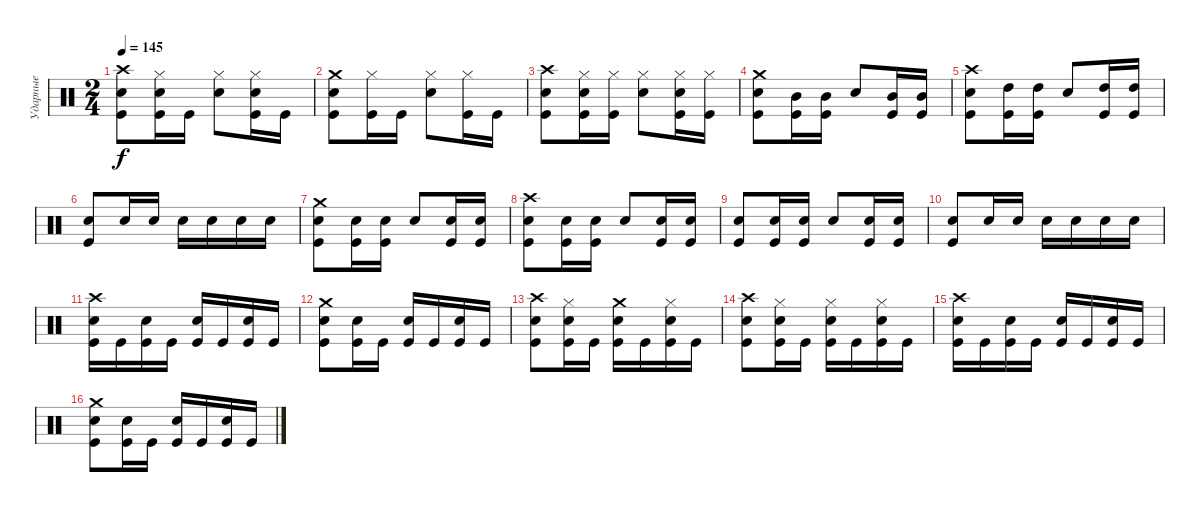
\track ("Ударные" "Ударные") {instrument percussion}
\staff {score}
\articulation defaults
\ts (2 4)
\tempo 145
\clef neutral
\ks c
("Crash high (hit)" "Electric Snare (hit)" "Kick (hit)").8{dy f} ("Hi-Hat (closed)" "Electric Snare (hit)" "Kick (hit)").16 "Kick (hit)".16 ("Hi-Hat (closed)" "Electric Snare (hit)").8 ("Hi-Hat (closed)" "Electric Snare (hit)" "Kick (hit)").16 "Kick (hit)".16 |
("Crash medium (hit)" "Electric Snare (hit)" "Kick (hit)").8 ("Hi-Hat (closed)" "Kick (hit)").16 "Kick (hit)".16 ("Hi-Hat (closed)" "Electric Snare (hit)").8 ("Hi-Hat (closed)" "Kick (hit)").16 "Kick (hit)".16 |
("Crash high (hit)" "Electric Snare (hit)" "Kick (hit)").8 ("Hi-Hat (closed)" "Electric Snare (hit)" "Kick (hit)").16 ("Hi-Hat (closed)" "Kick (hit)").16 ("Hi-Hat (closed)" "Electric Snare (hit)").8 ("Hi-Hat (closed)" "Electric Snare (hit)" "Kick (hit)").16 ("Hi-Hat (closed)" "Kick (hit)").16 |
("Crash medium (hit)" "Electric Snare (hit)" "Kick (hit)").8 ("Mid Tom (hit)" "Kick (hit)").16 ("Mid Tom (hit)" "Kick (hit)").16 "Electric Snare (hit)".8 ("Mid Tom (hit)" "Kick (hit)").16 ("Mid Tom (hit)" "Kick (hit)").16 |
("Crash high (hit)" "Electric Snare (hit)" "Kick (hit)").8 ("High Tom (hit)" "Kick (hit)").16 ("High Tom (hit)" "Kick (hit)").16 "Electric Snare (hit)".8 ("High Tom (hit)" "Kick (hit)").16 ("High Tom (hit)" "Kick (hit)").16 |
("Electric Snare (hit)" "Kick (hit)").8 "Electric Snare (hit)".16 "Electric Snare (hit)".16 "Electric Snare (hit)".16 "Electric Snare (hit)".16 "Electric Snare (hit)".16 "Electric Snare (hit)".16 |
("Crash medium (hit)" "Electric Snare (hit)" "Kick (hit)").8 ("Electric Snare (hit)" "Kick (hit)").16 ("Electric Snare (hit)" "Kick (hit)").16 "Electric Snare (hit)".8 ("Electric Snare (hit)" "Kick (hit)").16 ("Electric Snare (hit)" "Kick (hit)").16 |
("Crash high (hit)" "Electric Snare (hit)" "Kick (hit)").8 ("Electric Snare (hit)" "Kick (hit)").16 ("Electric Snare (hit)" "Kick (hit)").16 "Electric Snare (hit)".8 ("Electric Snare (hit)" "Kick (hit)").16 ("Electric Snare (hit)" "Kick (hit)").16 |
("Electric Snare (hit)" "Kick (hit)").8 ("Electric Snare (hit)" "Kick (hit)").16 ("Electric Snare (hit)" "Kick (hit)").16 "Electric Snare (hit)".8 ("Electric Snare (hit)" "Kick (hit)").16 ("Electric Snare (hit)" "Kick (hit)").16 |
("Electric Snare (hit)" "Kick (hit)").8 "Electric Snare (hit)".16 "Electric Snare (hit)".16 "Electric Snare (hit)".16 "Electric Snare (hit)".16 "Electric Snare (hit)".16 "Electric Snare (hit)".16 |
("Crash high (hit)" "Electric Snare (hit)" "Kick (hit)").16 "Kick (hit)".16 ("Electric Snare (hit)" "Kick (hit)").16 "Kick (hit)".16 ("Electric Snare (hit)" "Kick (hit)").16 "Kick (hit)".16 ("Electric Snare (hit)" "Kick (hit)").16 "Kick (hit)".16 |
("Crash medium (hit)" "Electric Snare (hit)" "Kick (hit)").8 ("Electric Snare (hit)" "Kick (hit)").16 "Kick (hit)".16 ("Electric Snare (hit)" "Kick (hit)").16 "Kick (hit)".16 ("Electric Snare (hit)" "Kick (hit)").16 "Kick (hit)".16 |
("Crash high (hit)" "Electric Snare (hit)" "Kick (hit)").8 ("Hi-Hat (closed)" "Electric Snare (hit)" "Kick (hit)").16 "Kick (hit)".16 ("Crash medium (hit)" "Electric Snare (hit)" "Kick (hit)").16 "Kick (hit)".16 ("Hi-Hat (closed)" "Electric Snare (hit)" "Kick (hit)").16 "Kick (hit)".16 |
("Crash high (hit)" "Electric Snare (hit)" "Kick (hit)").8 ("Hi-Hat (closed)" "Electric Snare (hit)" "Kick (hit)").16 "Kick (hit)".16 ("Hi-Hat (closed)" "Electric Snare (hit)" "Kick (hit)").16 "Kick (hit)".16 ("Hi-Hat (closed)" "Electric Snare (hit)" "Kick (hit)").16 "Kick (hit)".16 |
("Crash high (hit)" "Electric Snare (hit)" "Kick (hit)").16 "Kick (hit)".16 ("Electric Snare (hit)" "Kick (hit)").16 "Kick (hit)".16 ("Electric Snare (hit)" "Kick (hit)").16 "Kick (hit)".16 ("Electric Snare (hit)" "Kick (hit)").16 "Kick (hit)".16 |
("Crash medium (hit)" "Electric Snare (hit)" "Kick (hit)").8 ("Electric Snare (hit)" "Kick (hit)").16 "Kick (hit)".16 ("Electric Snare (hit)" "Kick (hit)").16 "Kick (hit)".16 ("Electric Snare (hit)" "Kick (hit)").16 "Kick (hit)".16
